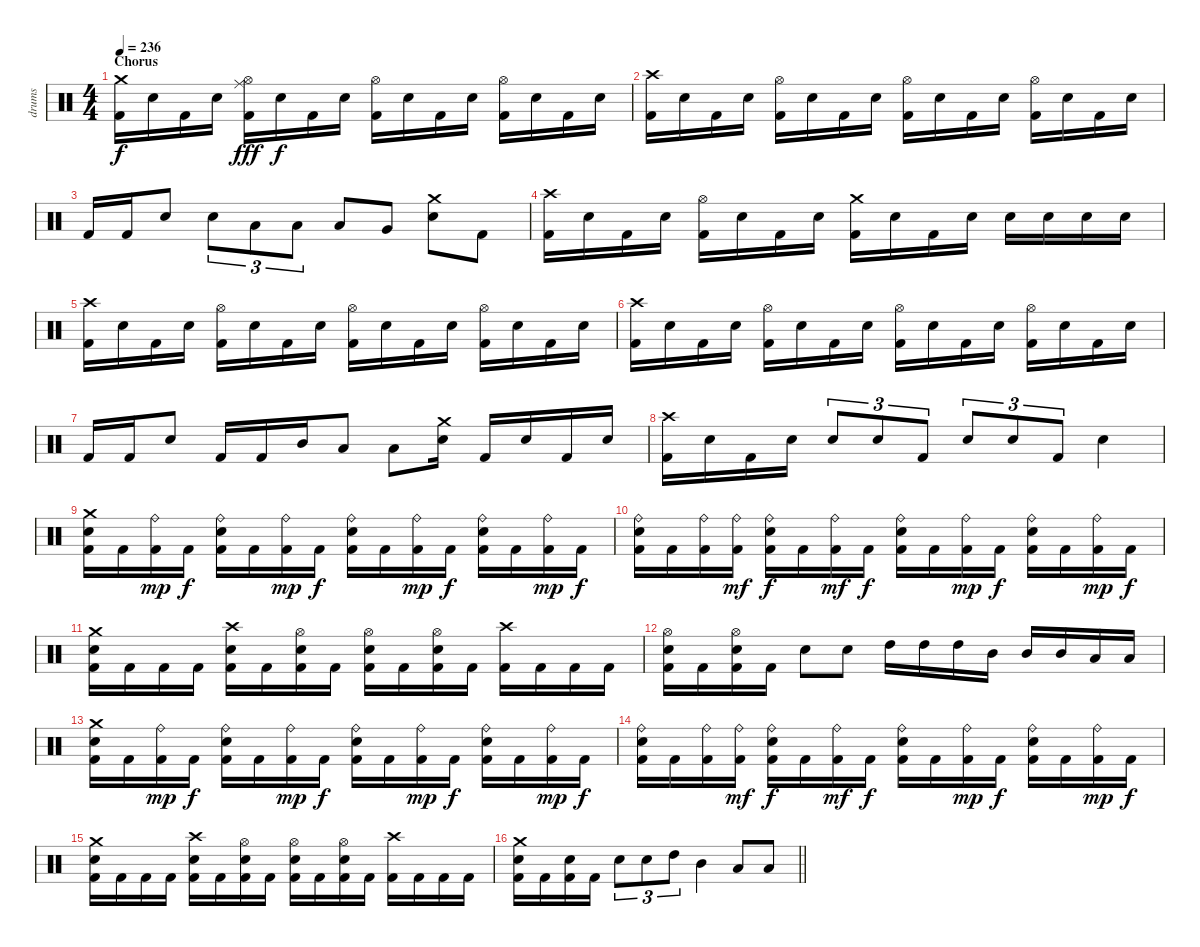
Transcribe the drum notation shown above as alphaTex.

\track ("drums" "drums") {instrument percussion}
\staff {score}
\articulation defaults
\ts (4 4)
\section ("" "Chorus")
\tempo 236
\clef neutral
\ks c
("Crash medium (hit)" "Kick (hit) 2").16{dy f} "Electric Snare (hit)".16 "Kick (hit) 2".16 "Electric Snare (hit)".16 ("Hi-Hat (open)" "Ride (middle)" "Kick (hit) 2").16{dy fff} "Electric Snare (hit)".16{dy f} "Kick (hit) 2".16 "Electric Snare (hit)".16 ("Hi-Hat (open)" "Kick (hit) 2").16 "Electric Snare (hit)".16 "Kick (hit) 2".16 "Electric Snare (hit)".16 ("Hi-Hat (open)" "Kick (hit) 2").16 "Electric Snare (hit)".16 "Kick (hit) 2".16 "Electric Snare (hit)".16 |
("Crash high (hit)" "Kick (hit) 2").16 "Electric Snare (hit)".16 "Kick (hit) 2".16 "Electric Snare (hit)".16 ("Hi-Hat (open)" "Kick (hit) 2").16 "Electric Snare (hit)".16 "Kick (hit) 2".16 "Electric Snare (hit)".16 ("Hi-Hat (open)" "Kick (hit) 2").16 "Electric Snare (hit)".16 "Kick (hit) 2".16 "Electric Snare (hit)".16 ("Hi-Hat (open)" "Kick (hit) 2").16 "Electric Snare (hit)".16 "Kick (hit) 2".16 "Electric Snare (hit)".16 |
"Kick (hit) 2".16 "Kick (hit) 2".16 "Electric Snare (hit)".8 "Electric Snare (hit)".8{tu (3 2)} "Low Tom (hit)".8{tu (3 2)} "Low Tom (hit)".8{tu (3 2)} "Low Tom (hit)".8 "Very Low Tom (hit)".8 ("Crash medium (hit)" "Electric Snare (hit)").8 "Kick (hit) 2".8 |
("Crash high (hit)" "Kick (hit) 2").16 "Electric Snare (hit)".16 "Kick (hit) 2".16 "Electric Snare (hit)".16 ("Hi-Hat (open)" "Kick (hit) 2").16 "Electric Snare (hit)".16 "Kick (hit) 2".16 "Electric Snare (hit)".16 ("Crash medium (hit)" "Kick (hit) 2").16 "Electric Snare (hit)".16 "Kick (hit) 2".16 "Electric Snare (hit)".16 "Electric Snare (hit)".16 "Electric Snare (hit)".16 "Electric Snare (hit)".16 "Electric Snare (hit)".16 |
("Crash high (hit)" "Kick (hit) 2").16 "Electric Snare (hit)".16 "Kick (hit) 2".16 "Electric Snare (hit)".16 ("Hi-Hat (open)" "Kick (hit) 2").16 "Electric Snare (hit)".16 "Kick (hit) 2".16 "Electric Snare (hit)".16 ("Hi-Hat (open)" "Kick (hit) 2").16 "Electric Snare (hit)".16 "Kick (hit) 2".16 "Electric Snare (hit)".16 ("Hi-Hat (open)" "Kick (hit) 2").16 "Electric Snare (hit)".16 "Kick (hit) 2".16 "Electric Snare (hit)".16 |
("Crash high (hit)" "Kick (hit) 2").16 "Electric Snare (hit)".16 "Kick (hit) 2".16 "Electric Snare (hit)".16 ("Hi-Hat (open)" "Kick (hit) 2").16 "Electric Snare (hit)".16 "Kick (hit) 2".16 "Electric Snare (hit)".16 ("Hi-Hat (open)" "Kick (hit) 2").16 "Electric Snare (hit)".16 "Kick (hit) 2".16 "Electric Snare (hit)".16 ("Hi-Hat (open)" "Kick (hit) 2").16 "Electric Snare (hit)".16 "Kick (hit) 2".16 "Electric Snare (hit)".16 |
"Kick (hit) 2".16 "Kick (hit) 2".16 "Electric Snare (hit)".8 "Kick (hit) 2".16 "Kick (hit) 2".16 "Mid Tom (hit)".16 "Low Tom (hit)".8 "Low Tom (hit)".8 ("Crash medium (hit)" "Electric Snare (hit)").16 "Kick (hit) 2".16 "Electric Snare (hit)".16 "Kick (hit) 2".16 "Electric Snare (hit)".16 |
("Crash high (hit)" "Kick (hit) 2").16 "Electric Snare (hit)".16 "Kick (hit) 2".16 "Electric Snare (hit)".16 "Electric Snare (hit)".8{tu (3 2)} "Electric Snare (hit)".8{tu (3 2)} "Kick (hit) 2".8{tu (3 2)} "Electric Snare (hit)".8{tu (3 2)} "Electric Snare (hit)".8{tu (3 2)} "Kick (hit) 2".8{tu (3 2)} "Electric Snare (hit)".4 |
("Crash medium (hit)" "Electric Snare (hit)" "Kick (hit) 2").16 "Kick (hit) 2".16 ("Ride (bell)" "Kick (hit) 2").16{dy mp} "Kick (hit) 2".16{dy f} ("Ride (bell)" "Electric Snare (hit)" "Kick (hit) 2").16 "Kick (hit) 2".16 ("Ride (bell)" "Kick (hit) 2").16{dy mp} "Kick (hit) 2".16{dy f} ("Ride (bell)" "Electric Snare (hit)" "Kick (hit) 2").16 "Kick (hit) 2".16 ("Ride (bell)" "Kick (hit) 2").16{dy mp} "Kick (hit) 2".16{dy f} ("Ride (bell)" "Electric Snare (hit)" "Kick (hit) 2").16 "Kick (hit) 2".16 ("Ride (bell)" "Kick (hit) 2").16{dy mp} "Kick (hit) 2".16{dy f} |
("Ride (bell)" "Electric Snare (hit)" "Kick (hit) 2").16 "Kick (hit) 2".16 ("Ride (bell)" "Kick (hit) 2").16 ("Ride (bell)" "Kick (hit) 2").16{dy mf} ("Ride (bell)" "Electric Snare (hit)" "Kick (hit) 2").16{dy f} "Kick (hit) 2".16 ("Ride (bell)" "Kick (hit) 2").16{dy mf} "Kick (hit) 2".16{dy f} ("Ride (bell)" "Electric Snare (hit)" "Kick (hit) 2").16 "Kick (hit) 2".16 ("Ride (bell)" "Kick (hit) 2").16{dy mp} "Kick (hit) 2".16{dy f} ("Ride (bell)" "Electric Snare (hit)" "Kick (hit) 2").16 "Kick (hit) 2".16 ("Ride (bell)" "Kick (hit) 2").16{dy mp} "Kick (hit) 2".16{dy f} |
("Crash medium (hit)" "Electric Snare (hit)" "Kick (hit) 2").16 "Kick (hit) 2".16 "Kick (hit) 2".16 "Kick (hit) 2".16 ("Crash high (hit)" "Electric Snare (hit)" "Kick (hit) 2").16 "Kick (hit) 2".16 ("Hi-Hat (open)" "Electric Snare (hit)" "Kick (hit) 2").16 "Kick (hit) 2".16 ("Hi-Hat (open)" "Electric Snare (hit)" "Kick (hit) 2").16 "Kick (hit) 2".16 ("Hi-Hat (open)" "Electric Snare (hit)" "Kick (hit) 2").16 "Kick (hit) 2".16 ("Crash high (hit)" "Kick (hit) 2").16 "Kick (hit) 2".16 "Kick (hit) 2".16 "Kick (hit) 2".16 |
("Hi-Hat (open)" "Electric Snare (hit)" "Kick (hit) 2").16 "Kick (hit) 2".16 ("Hi-Hat (open)" "Electric Snare (hit)" "Kick (hit) 2").16 "Kick (hit) 2".16 "Electric Snare (hit)".8 "Electric Snare (hit)".8 "High Tom (hit)".16 "High Tom (hit)".16 "High Tom (hit)".16 "Mid Tom (hit)".16 "Mid Tom (hit)".16 "Mid Tom (hit)".16 "Low Tom (hit)".16 "Low Tom (hit)".16 |
("Crash medium (hit)" "Electric Snare (hit)" "Kick (hit) 2").16 "Kick (hit) 2".16 ("Ride (bell)" "Kick (hit) 2").16{dy mp} "Kick (hit) 2".16{dy f} ("Ride (bell)" "Electric Snare (hit)" "Kick (hit) 2").16 "Kick (hit) 2".16 ("Ride (bell)" "Kick (hit) 2").16{dy mp} "Kick (hit) 2".16{dy f} ("Ride (bell)" "Electric Snare (hit)" "Kick (hit) 2").16 "Kick (hit) 2".16 ("Ride (bell)" "Kick (hit) 2").16{dy mp} "Kick (hit) 2".16{dy f} ("Ride (bell)" "Electric Snare (hit)" "Kick (hit) 2").16 "Kick (hit) 2".16 ("Ride (bell)" "Kick (hit) 2").16{dy mp} "Kick (hit) 2".16{dy f} |
("Ride (bell)" "Electric Snare (hit)" "Kick (hit) 2").16 "Kick (hit) 2".16 ("Ride (bell)" "Kick (hit) 2").16 ("Ride (bell)" "Kick (hit) 2").16{dy mf} ("Ride (bell)" "Electric Snare (hit)" "Kick (hit) 2").16{dy f} "Kick (hit) 2".16 ("Ride (bell)" "Kick (hit) 2").16{dy mf} "Kick (hit) 2".16{dy f} ("Ride (bell)" "Electric Snare (hit)" "Kick (hit) 2").16 "Kick (hit) 2".16 ("Ride (bell)" "Kick (hit) 2").16{dy mp} "Kick (hit) 2".16{dy f} ("Ride (bell)" "Electric Snare (hit)" "Kick (hit) 2").16 "Kick (hit) 2".16 ("Ride (bell)" "Kick (hit) 2").16{dy mp} "Kick (hit) 2".16{dy f} |
("Crash medium (hit)" "Electric Snare (hit)" "Kick (hit) 2").16 "Kick (hit) 2".16 "Kick (hit) 2".16 "Kick (hit) 2".16 ("Crash high (hit)" "Electric Snare (hit)" "Kick (hit) 2").16 "Kick (hit) 2".16 ("Hi-Hat (open)" "Electric Snare (hit)" "Kick (hit) 2").16 "Kick (hit) 2".16 ("Hi-Hat (open)" "Electric Snare (hit)" "Kick (hit) 2").16 "Kick (hit) 2".16 ("Hi-Hat (open)" "Electric Snare (hit)" "Kick (hit) 2").16 "Kick (hit) 2".16 ("Crash high (hit)" "Kick (hit) 2").16 "Kick (hit) 2".16 "Kick (hit) 2".16 "Kick (hit) 2".16 |
\barLineRight lightlight
("Crash medium (hit)" "Electric Snare (hit)" "Kick (hit) 2").16 "Kick (hit) 2".16 ("Electric Snare (hit)" "Kick (hit) 2").16 "Kick (hit) 2".16 "Electric Snare (hit)".8{tu (3 2)} "Electric Snare (hit)".8{tu (3 2)} "High Tom (hit)".8{tu (3 2)} "Mid Tom (hit)".4 "Low Tom (hit)".8 "Low Tom (hit)".8
